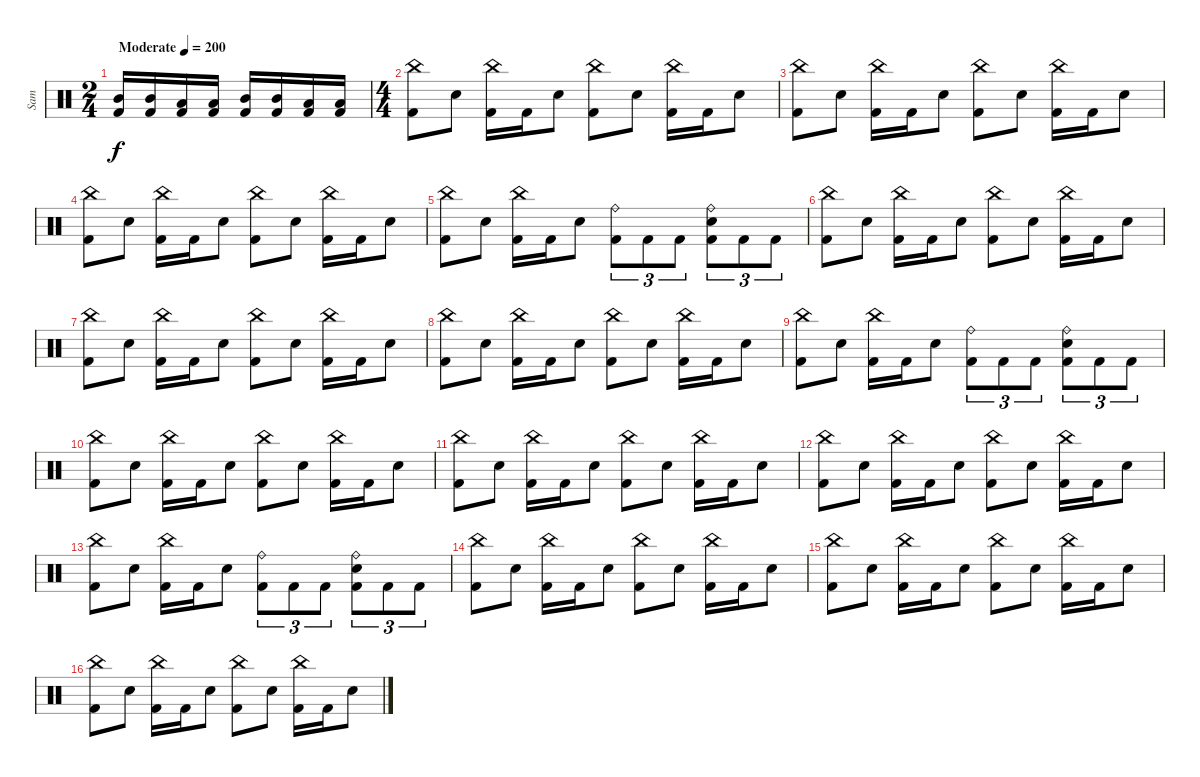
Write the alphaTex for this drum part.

\track ("Sam" "Sam") {instrument percussion}
\staff {score}
\articulation defaults
\ts (2 4)
\tempo (200 "Moderate")
\clef neutral
\ks c
("Mid Tom (hit)" "Kick (hit) 2").16{dy f} ("Mid Tom (hit)" "Kick (hit) 2").16 ("Low Tom (hit)" "Kick (hit) 2").16 ("Low Tom (hit)" "Kick (hit) 2").16 ("Mid Tom (hit)" "Kick (hit) 2").16 ("Mid Tom (hit)" "Kick (hit) 2").16 ("Low Tom (hit)" "Kick (hit) 2").16 ("Low Tom (hit)" "Kick (hit) 2").16 |
\ts (4 4)
("China (hit)" "Kick (hit) 2").8 "Snare (hit) 2".8 ("China (hit)" "Kick (hit) 2").16 "Kick (hit) 2".16 "Snare (hit) 2".8 ("China (hit)" "Kick (hit) 2").8 "Snare (hit) 2".8 ("China (hit)" "Kick (hit) 2").16 "Kick (hit) 2".16 "Snare (hit) 2".8 |
("China (hit)" "Kick (hit) 2").8 "Snare (hit) 2".8 ("China (hit)" "Kick (hit) 2").16 "Kick (hit) 2".16 "Snare (hit) 2".8 ("China (hit)" "Kick (hit) 2").8 "Snare (hit) 2".8 ("China (hit)" "Kick (hit) 2").16 "Kick (hit) 2".16 "Snare (hit) 2".8 |
("China (hit)" "Kick (hit) 2").8 "Snare (hit) 2".8 ("China (hit)" "Kick (hit) 2").16 "Kick (hit) 2".16 "Snare (hit) 2".8 ("China (hit)" "Kick (hit) 2").8 "Snare (hit) 2".8 ("China (hit)" "Kick (hit) 2").16 "Kick (hit) 2".16 "Snare (hit) 2".8 |
("China (hit)" "Kick (hit) 2").8 "Snare (hit) 2".8 ("China (hit)" "Kick (hit) 2").16 "Kick (hit) 2".16 "Snare (hit) 2".8 ("Ride (bell)" "Kick (hit) 2").8{tu (3 2)} "Kick (hit) 2".8{tu (3 2)} "Kick (hit) 2".8{tu (3 2)} ("Ride (bell)" "Snare (hit) 2" "Kick (hit) 2").8{tu (3 2)} "Kick (hit) 2".8{tu (3 2)} "Kick (hit) 2".8{tu (3 2)} |
("China (hit)" "Kick (hit) 2").8 "Snare (hit) 2".8 ("China (hit)" "Kick (hit) 2").16 "Kick (hit) 2".16 "Snare (hit) 2".8 ("China (hit)" "Kick (hit) 2").8 "Snare (hit) 2".8 ("China (hit)" "Kick (hit) 2").16 "Kick (hit) 2".16 "Snare (hit) 2".8 |
("China (hit)" "Kick (hit) 2").8 "Snare (hit) 2".8 ("China (hit)" "Kick (hit) 2").16 "Kick (hit) 2".16 "Snare (hit) 2".8 ("China (hit)" "Kick (hit) 2").8 "Snare (hit) 2".8 ("China (hit)" "Kick (hit) 2").16 "Kick (hit) 2".16 "Snare (hit) 2".8 |
("China (hit)" "Kick (hit) 2").8 "Snare (hit) 2".8 ("China (hit)" "Kick (hit) 2").16 "Kick (hit) 2".16 "Snare (hit) 2".8 ("China (hit)" "Kick (hit) 2").8 "Snare (hit) 2".8 ("China (hit)" "Kick (hit) 2").16 "Kick (hit) 2".16 "Snare (hit) 2".8 |
("China (hit)" "Kick (hit) 2").8 "Snare (hit) 2".8 ("China (hit)" "Kick (hit) 2").16 "Kick (hit) 2".16 "Snare (hit) 2".8 ("Ride (bell)" "Kick (hit) 2").8{tu (3 2)} "Kick (hit) 2".8{tu (3 2)} "Kick (hit) 2".8{tu (3 2)} ("Ride (bell)" "Snare (hit) 2" "Kick (hit) 2").8{tu (3 2)} "Kick (hit) 2".8{tu (3 2)} "Kick (hit) 2".8{tu (3 2)} |
("China (hit)" "Kick (hit) 2").8 "Snare (hit) 2".8 ("China (hit)" "Kick (hit) 2").16 "Kick (hit) 2".16 "Snare (hit) 2".8 ("China (hit)" "Kick (hit) 2").8 "Snare (hit) 2".8 ("China (hit)" "Kick (hit) 2").16 "Kick (hit) 2".16 "Snare (hit) 2".8 |
("China (hit)" "Kick (hit) 2").8 "Snare (hit) 2".8 ("China (hit)" "Kick (hit) 2").16 "Kick (hit) 2".16 "Snare (hit) 2".8 ("China (hit)" "Kick (hit) 2").8 "Snare (hit) 2".8 ("China (hit)" "Kick (hit) 2").16 "Kick (hit) 2".16 "Snare (hit) 2".8 |
("China (hit)" "Kick (hit) 2").8 "Snare (hit) 2".8 ("China (hit)" "Kick (hit) 2").16 "Kick (hit) 2".16 "Snare (hit) 2".8 ("China (hit)" "Kick (hit) 2").8 "Snare (hit) 2".8 ("China (hit)" "Kick (hit) 2").16 "Kick (hit) 2".16 "Snare (hit) 2".8 |
("China (hit)" "Kick (hit) 2").8 "Snare (hit) 2".8 ("China (hit)" "Kick (hit) 2").16 "Kick (hit) 2".16 "Snare (hit) 2".8 ("Ride (bell)" "Kick (hit) 2").8{tu (3 2)} "Kick (hit) 2".8{tu (3 2)} "Kick (hit) 2".8{tu (3 2)} ("Ride (bell)" "Snare (hit) 2" "Kick (hit) 2").8{tu (3 2)} "Kick (hit) 2".8{tu (3 2)} "Kick (hit) 2".8{tu (3 2)} |
("China (hit)" "Kick (hit) 2").8 "Snare (hit) 2".8 ("China (hit)" "Kick (hit) 2").16 "Kick (hit) 2".16 "Snare (hit) 2".8 ("China (hit)" "Kick (hit) 2").8 "Snare (hit) 2".8 ("China (hit)" "Kick (hit) 2").16 "Kick (hit) 2".16 "Snare (hit) 2".8 |
("China (hit)" "Kick (hit) 2").8 "Snare (hit) 2".8 ("China (hit)" "Kick (hit) 2").16 "Kick (hit) 2".16 "Snare (hit) 2".8 ("China (hit)" "Kick (hit) 2").8 "Snare (hit) 2".8 ("China (hit)" "Kick (hit) 2").16 "Kick (hit) 2".16 "Snare (hit) 2".8 |
("China (hit)" "Kick (hit) 2").8 "Snare (hit) 2".8 ("China (hit)" "Kick (hit) 2").16 "Kick (hit) 2".16 "Snare (hit) 2".8 ("China (hit)" "Kick (hit) 2").8 "Snare (hit) 2".8 ("China (hit)" "Kick (hit) 2").16 "Kick (hit) 2".16 "Snare (hit) 2".8
